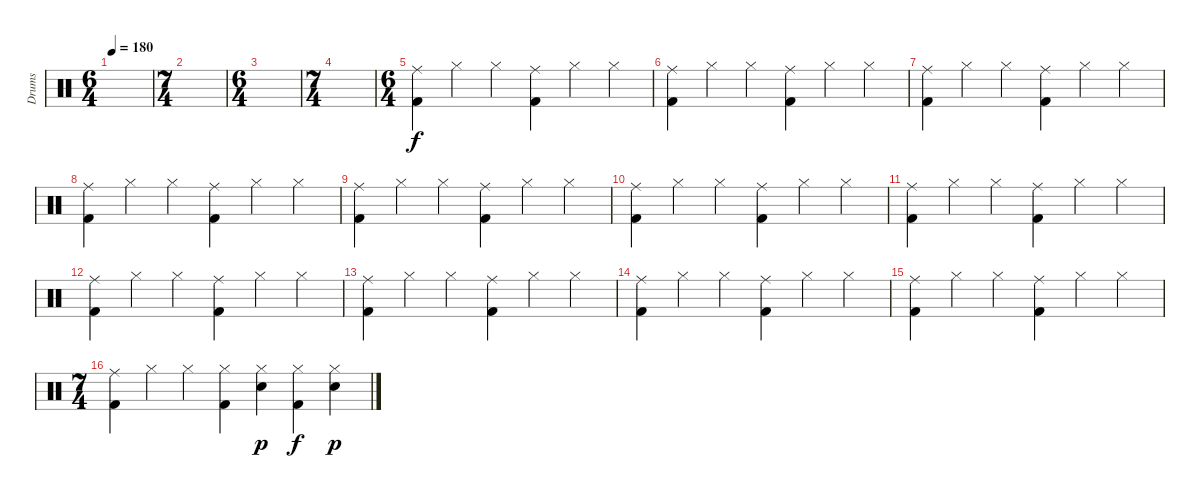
\track ("Drums" "Drums") {instrument percussion}
\staff {score}
\articulation defaults
\ts (6 4)
\tempo 180
\clef neutral
\ks c
|
\ts (7 4)
|
\ts (6 4)
|
\ts (7 4)
|
\ts (6 4)
("Ride (middle)" "Kick (hit) 2").4 "Hi-Hat (closed)".4 "Hi-Hat (closed)".4 ("Ride (middle)" "Kick (hit) 2").4 "Hi-Hat (closed)".4 "Hi-Hat (closed)".4 |
("Ride (middle)" "Kick (hit) 2").4 "Hi-Hat (closed)".4 "Hi-Hat (closed)".4 ("Ride (middle)" "Kick (hit) 2").4 "Hi-Hat (closed)".4 "Hi-Hat (closed)".4 |
("Ride (middle)" "Kick (hit) 2").4 "Hi-Hat (closed)".4 "Hi-Hat (closed)".4 ("Ride (middle)" "Kick (hit) 2").4 "Hi-Hat (closed)".4 "Hi-Hat (closed)".4 |
("Ride (middle)" "Kick (hit) 2").4 "Hi-Hat (closed)".4 "Hi-Hat (closed)".4 ("Ride (middle)" "Kick (hit) 2").4 "Hi-Hat (closed)".4 "Hi-Hat (closed)".4 |
("Ride (middle)" "Kick (hit) 2").4 "Hi-Hat (closed)".4 "Hi-Hat (closed)".4 ("Ride (middle)" "Kick (hit) 2").4 "Hi-Hat (closed)".4 "Hi-Hat (closed)".4 |
("Ride (middle)" "Kick (hit) 2").4 "Hi-Hat (closed)".4 "Hi-Hat (closed)".4 ("Ride (middle)" "Kick (hit) 2").4 "Hi-Hat (closed)".4 "Hi-Hat (closed)".4 |
("Ride (middle)" "Kick (hit) 2").4 "Hi-Hat (closed)".4 "Hi-Hat (closed)".4 ("Ride (middle)" "Kick (hit) 2").4 "Hi-Hat (closed)".4 "Hi-Hat (closed)".4 |
("Ride (middle)" "Kick (hit) 2").4 "Hi-Hat (closed)".4 "Hi-Hat (closed)".4 ("Ride (middle)" "Kick (hit) 2").4 "Hi-Hat (closed)".4 "Hi-Hat (closed)".4 |
("Ride (middle)" "Kick (hit) 2").4 "Hi-Hat (closed)".4 "Hi-Hat (closed)".4 ("Ride (middle)" "Kick (hit) 2").4 "Hi-Hat (closed)".4 "Hi-Hat (closed)".4 |
("Ride (middle)" "Kick (hit) 2").4 "Hi-Hat (closed)".4 "Hi-Hat (closed)".4 ("Ride (middle)" "Kick (hit) 2").4 "Hi-Hat (closed)".4 "Hi-Hat (closed)".4 |
("Ride (middle)" "Kick (hit) 2").4 "Hi-Hat (closed)".4 "Hi-Hat (closed)".4 ("Ride (middle)" "Kick (hit) 2").4 "Hi-Hat (closed)".4 "Hi-Hat (closed)".4 |
\ts (7 4)
("Ride (middle)" "Kick (hit) 2").4 "Hi-Hat (closed)".4 "Hi-Hat (closed)".4 ("Hi-Hat (closed)" "Kick (hit) 2").4 ("Hi-Hat (closed)" "Electric Snare (hit)").4{dy p} ("Hi-Hat (closed)" "Kick (hit) 2").4{dy f} ("Hi-Hat (closed)" "Electric Snare (hit)").4{dy p}
